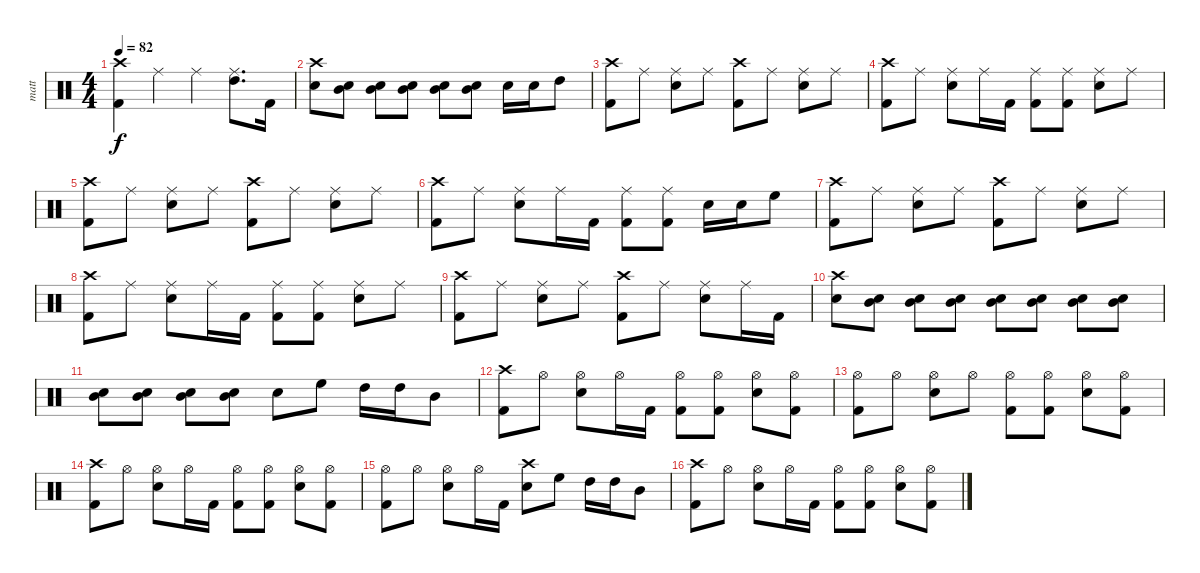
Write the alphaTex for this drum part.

\track ("matt" "matt") {instrument percussion}
\staff {score}
\articulation defaults
\ts (4 4)
\tempo 82
\clef neutral
\ks c
("Crash high (hit)" "Kick (hit) 2").4{dy f} "Ride (middle)".4 "Ride (middle)".4 ("Ride (middle)" "High Tom (hit)").8{d} "Kick (hit) 2".16 |
("Crash high (hit)" "Electric Snare (hit)").8 ("Electric Snare (hit)" "Mid Tom (hit)").8 ("Electric Snare (hit)" "Mid Tom (hit)").8 ("Electric Snare (hit)" "Mid Tom (hit)").8 ("Electric Snare (hit)" "Mid Tom (hit)").8 ("Electric Snare (hit)" "Mid Tom (hit)").8 "Electric Snare (hit)".16 "Electric Snare (hit)".16 "High Tom (hit)".8 |
("Crash high (hit)" "Kick (hit) 2").8 "Ride (middle)".8 ("Ride (middle)" "Electric Snare (hit)").8 "Ride (middle)".8 ("Crash high (hit)" "Kick (hit) 2").8 "Ride (middle)".8 ("Ride (middle)" "Electric Snare (hit)").8 "Ride (middle)".8 |
("Crash high (hit)" "Kick (hit) 2").8 "Ride (middle)".8 ("Ride (middle)" "Electric Snare (hit)").8 "Ride (middle)".16 "Kick (hit) 2".16 ("Ride (middle)" "Kick (hit) 2").8 ("Ride (middle)" "Kick (hit) 2").8 ("Ride (middle)" "Electric Snare (hit)").8 "Ride (middle)".8 |
("Crash high (hit)" "Kick (hit) 2").8 "Ride (middle)".8 ("Ride (middle)" "Electric Snare (hit)").8 "Ride (middle)".8 ("Crash high (hit)" "Kick (hit) 2").8 "Ride (middle)".8 ("Ride (middle)" "Electric Snare (hit)").8 "Ride (middle)".8 |
("Crash high (hit)" "Kick (hit) 2").8 "Ride (middle)".8 ("Ride (middle)" "Electric Snare (hit)").8 "Ride (middle)".16 "Kick (hit) 2".16 ("Ride (middle)" "Kick (hit) 2").8 ("Ride (middle)" "Kick (hit) 2").8 "Electric Snare (hit)".16 "Electric Snare (hit)".16 "High Floor Tom (hit)".8 |
("Crash high (hit)" "Kick (hit) 2").8 "Ride (middle)".8 ("Ride (middle)" "Electric Snare (hit)").8 "Ride (middle)".8 ("Crash high (hit)" "Kick (hit) 2").8 "Ride (middle)".8 ("Ride (middle)" "Electric Snare (hit)").8 "Ride (middle)".8 |
("Crash high (hit)" "Kick (hit) 2").8 "Ride (middle)".8 ("Ride (middle)" "Electric Snare (hit)").8 "Ride (middle)".16 "Kick (hit) 2".16 ("Ride (middle)" "Kick (hit) 2").8 ("Ride (middle)" "Kick (hit) 2").8 ("Ride (middle)" "Electric Snare (hit)").8 "Ride (middle)".8 |
("Crash high (hit)" "Kick (hit) 2").8 "Ride (middle)".8 ("Ride (middle)" "Electric Snare (hit)").8 "Ride (middle)".8 ("Crash high (hit)" "Kick (hit) 2").8 "Ride (middle)".8 ("Ride (middle)" "Electric Snare (hit)").8 "Ride (middle)".16 "Kick (hit) 2".16 |
("Crash high (hit)" "Electric Snare (hit)").8 ("Electric Snare (hit)" "Mid Tom (hit)").8 ("Electric Snare (hit)" "Mid Tom (hit)").8 ("Electric Snare (hit)" "Mid Tom (hit)").8 ("Electric Snare (hit)" "Mid Tom (hit)").8 ("Electric Snare (hit)" "Mid Tom (hit)").8 ("Electric Snare (hit)" "Mid Tom (hit)").8 ("Electric Snare (hit)" "Mid Tom (hit)").8 |
("Electric Snare (hit)" "Mid Tom (hit)").8 ("Electric Snare (hit)" "Mid Tom (hit)").8 ("Electric Snare (hit)" "Mid Tom (hit)").8 ("Electric Snare (hit)" "Mid Tom (hit)").8 "Electric Snare (hit)".8 "High Floor Tom (hit)".8 "High Tom (hit)".16 "High Tom (hit)".16 "Mid Tom (hit)".8 |
("Crash high (hit)" "Kick (hit) 2").8 "Hi-Hat (open)".8 ("Hi-Hat (open)" "Electric Snare (hit)").8 "Hi-Hat (open)".16 "Kick (hit) 2".16 ("Hi-Hat (open)" "Kick (hit) 2").8 ("Hi-Hat (open)" "Kick (hit) 2").8 ("Hi-Hat (open)" "Electric Snare (hit)").8 ("Hi-Hat (open)" "Kick (hit) 2").8 |
("Hi-Hat (open)" "Kick (hit) 2").8 "Hi-Hat (open)".8 ("Hi-Hat (open)" "Electric Snare (hit)").8 "Hi-Hat (open)".8 ("Hi-Hat (open)" "Kick (hit) 2").8 ("Hi-Hat (open)" "Kick (hit) 2").8 ("Hi-Hat (open)" "Electric Snare (hit)").8 ("Hi-Hat (open)" "Kick (hit) 2").8 |
("Crash high (hit)" "Kick (hit) 2").8 "Hi-Hat (open)".8 ("Hi-Hat (open)" "Electric Snare (hit)").8 "Hi-Hat (open)".16 "Kick (hit) 2".16 ("Hi-Hat (open)" "Kick (hit) 2").8 ("Hi-Hat (open)" "Kick (hit) 2").8 ("Hi-Hat (open)" "Electric Snare (hit)").8 ("Hi-Hat (open)" "Kick (hit) 2").8 |
("Hi-Hat (open)" "Kick (hit) 2").8 "Hi-Hat (open)".8 ("Hi-Hat (open)" "Electric Snare (hit)").8 "Hi-Hat (open)".16 "Kick (hit) 2".16 ("Crash high (hit)" "Electric Snare (hit)").8 "High Floor Tom (hit)".8 "High Tom (hit)".16 "High Tom (hit)".16 "Mid Tom (hit)".8 |
("Crash high (hit)" "Kick (hit) 2").8 "Hi-Hat (open)".8 ("Hi-Hat (open)" "Electric Snare (hit)").8 "Hi-Hat (open)".16 "Kick (hit) 2".16 ("Hi-Hat (open)" "Kick (hit) 2").8 ("Hi-Hat (open)" "Kick (hit) 2").8 ("Hi-Hat (open)" "Electric Snare (hit)").8 ("Hi-Hat (open)" "Kick (hit) 2").8
